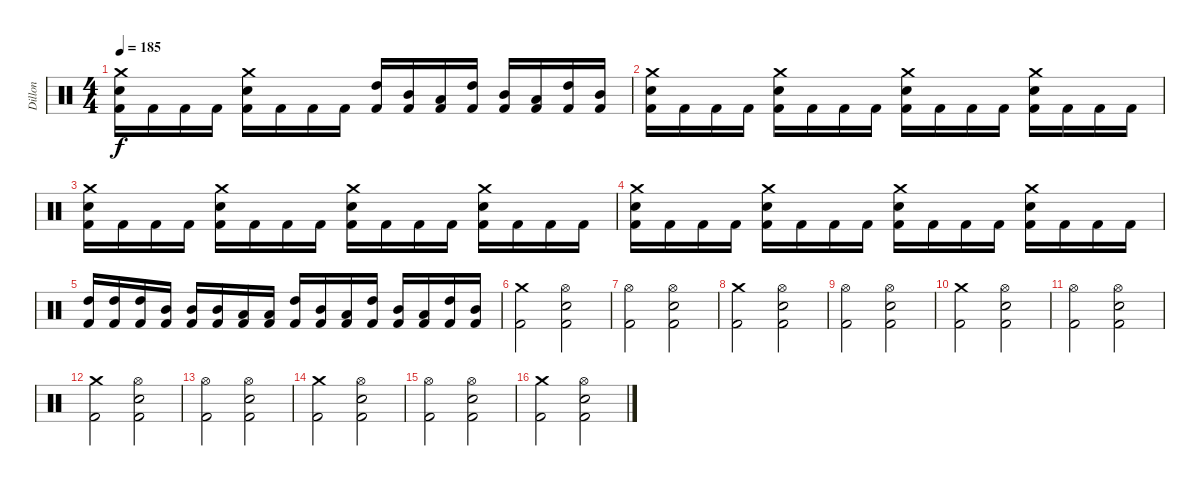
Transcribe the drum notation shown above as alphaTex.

\track ("Dillon" "Dillon") {instrument percussion}
\staff {score}
\articulation defaults
\ts (4 4)
\tempo 185
\clef neutral
\ks c
("Crash medium (hit)" "Electric Snare (hit)" "Kick (hit) 2").16{dy f} "Kick (hit) 2".16 "Kick (hit) 2".16 "Kick (hit) 2".16 ("Crash medium (hit)" "Electric Snare (hit)" "Kick (hit) 2").16 "Kick (hit) 2".16 "Kick (hit) 2".16 "Kick (hit) 2".16 ("High Tom (hit)" "Kick (hit) 2").16 ("Mid Tom (hit)" "Kick (hit) 2").16 ("Low Tom (hit)" "Kick (hit) 2").16 ("High Tom (hit)" "Kick (hit) 2").16 ("Mid Tom (hit)" "Kick (hit) 2").16 ("Low Tom (hit)" "Kick (hit) 2").16 ("High Tom (hit)" "Kick (hit) 2").16 ("Mid Tom (hit)" "Kick (hit) 2").16 |
("Crash medium (hit)" "Electric Snare (hit)" "Kick (hit) 2").16 "Kick (hit) 2".16 "Kick (hit) 2".16 "Kick (hit) 2".16 ("Crash medium (hit)" "Electric Snare (hit)" "Kick (hit) 2").16 "Kick (hit) 2".16 "Kick (hit) 2".16 "Kick (hit) 2".16 ("Crash medium (hit)" "Electric Snare (hit)" "Kick (hit) 2").16 "Kick (hit) 2".16 "Kick (hit) 2".16 "Kick (hit) 2".16 ("Crash medium (hit)" "Electric Snare (hit)" "Kick (hit) 2").16 "Kick (hit) 2".16 "Kick (hit) 2".16 "Kick (hit) 2".16 |
("Crash medium (hit)" "Electric Snare (hit)" "Kick (hit) 2").16 "Kick (hit) 2".16 "Kick (hit) 2".16 "Kick (hit) 2".16 ("Crash medium (hit)" "Electric Snare (hit)" "Kick (hit) 2").16 "Kick (hit) 2".16 "Kick (hit) 2".16 "Kick (hit) 2".16 ("Crash medium (hit)" "Electric Snare (hit)" "Kick (hit) 2").16 "Kick (hit) 2".16 "Kick (hit) 2".16 "Kick (hit) 2".16 ("Crash medium (hit)" "Electric Snare (hit)" "Kick (hit) 2").16 "Kick (hit) 2".16 "Kick (hit) 2".16 "Kick (hit) 2".16 |
("Crash medium (hit)" "Electric Snare (hit)" "Kick (hit) 2").16 "Kick (hit) 2".16 "Kick (hit) 2".16 "Kick (hit) 2".16 ("Crash medium (hit)" "Electric Snare (hit)" "Kick (hit) 2").16 "Kick (hit) 2".16 "Kick (hit) 2".16 "Kick (hit) 2".16 ("Crash medium (hit)" "Electric Snare (hit)" "Kick (hit) 2").16 "Kick (hit) 2".16 "Kick (hit) 2".16 "Kick (hit) 2".16 ("Crash medium (hit)" "Electric Snare (hit)" "Kick (hit) 2").16 "Kick (hit) 2".16 "Kick (hit) 2".16 "Kick (hit) 2".16 |
("High Tom (hit)" "Kick (hit) 2").16 ("High Tom (hit)" "Kick (hit) 2").16 ("High Tom (hit)" "Kick (hit) 2").16 ("Mid Tom (hit)" "Kick (hit) 2").16 ("Mid Tom (hit)" "Kick (hit) 2").16 ("Mid Tom (hit)" "Kick (hit) 2").16 ("Low Tom (hit)" "Kick (hit) 2").16 ("Low Tom (hit)" "Kick (hit) 2").16 ("High Tom (hit)" "Kick (hit) 2").16 ("Mid Tom (hit)" "Kick (hit) 2").16 ("Low Tom (hit)" "Kick (hit) 2").16 ("High Tom (hit)" "Kick (hit) 2").16 ("Mid Tom (hit)" "Kick (hit) 2").16 ("Low Tom (hit)" "Kick (hit) 2").16 ("High Tom (hit)" "Kick (hit) 2").16 ("Mid Tom (hit)" "Kick (hit) 2").16 |
("Crash medium (hit)" "Kick (hit) 2").2 ("Hi-Hat (open)" "Electric Snare (hit)" "Kick (hit) 2").2 |
("Hi-Hat (open)" "Kick (hit) 2").2 ("Hi-Hat (open)" "Electric Snare (hit)" "Kick (hit) 2").2 |
("Crash medium (hit)" "Kick (hit) 2").2 ("Hi-Hat (open)" "Electric Snare (hit)" "Kick (hit) 2").2 |
("Hi-Hat (open)" "Kick (hit) 2").2 ("Hi-Hat (open)" "Electric Snare (hit)" "Kick (hit) 2").2 |
("Crash medium (hit)" "Kick (hit) 2").2 ("Hi-Hat (open)" "Electric Snare (hit)" "Kick (hit) 2").2 |
("Hi-Hat (open)" "Kick (hit) 2").2 ("Hi-Hat (open)" "Electric Snare (hit)" "Kick (hit) 2").2 |
("Crash medium (hit)" "Kick (hit) 2").2 ("Hi-Hat (open)" "Electric Snare (hit)" "Kick (hit) 2").2 |
("Hi-Hat (open)" "Kick (hit) 2").2 ("Hi-Hat (open)" "Electric Snare (hit)" "Kick (hit) 2").2 |
("Crash medium (hit)" "Kick (hit) 2").2 ("Hi-Hat (open)" "Electric Snare (hit)" "Kick (hit) 2").2 |
("Hi-Hat (open)" "Kick (hit) 2").2 ("Hi-Hat (open)" "Electric Snare (hit)" "Kick (hit) 2").2 |
("Crash medium (hit)" "Kick (hit) 2").2 ("Hi-Hat (open)" "Electric Snare (hit)" "Kick (hit) 2").2
